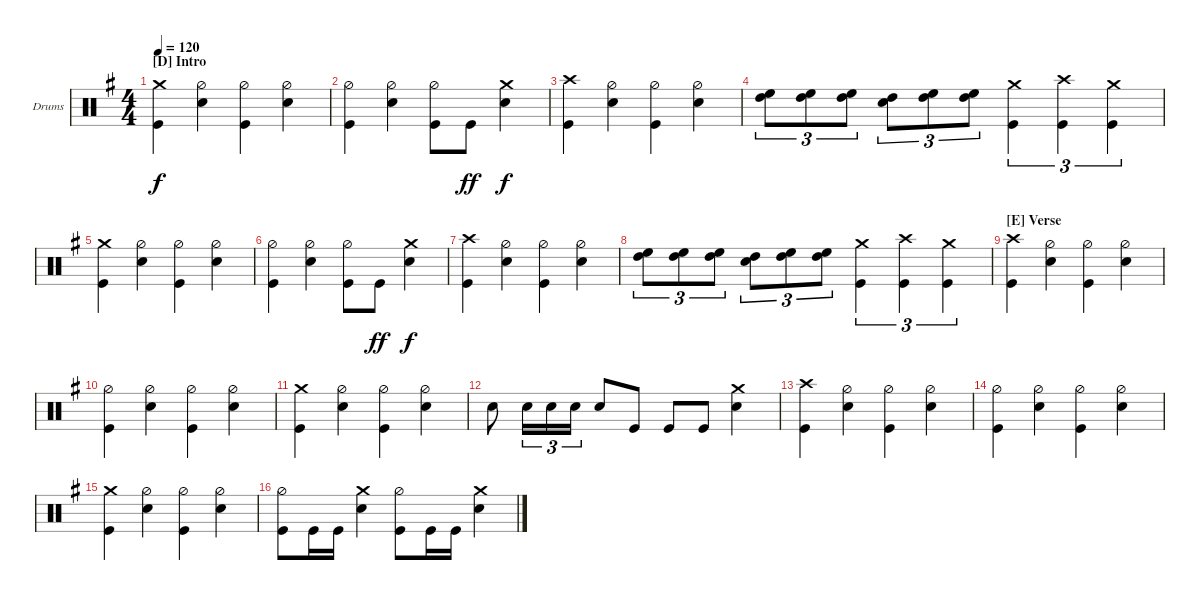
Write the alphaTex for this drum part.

\defaultSystemsLayout 4
\bracketExtendMode groupsimilarinstruments
\firstSystemTrackNameOrientation horizontal
\otherSystemsTrackNameOrientation horizontal
\track ("Drumkit" "Drums") {multiBarRest instrument percussion}
\staff {score}
\articulation defaults
\ts (4 4)
\section ("D" "Intro")
\tempo 120
\clef neutral
\ks g
("Crash medium (hit)" "Kick (hit)").4{dy f} ("Hi-Hat (half)" "Snare (hit) 2").4 ("Hi-Hat (half)" "Kick (hit)").4 ("Hi-Hat (half)" "Snare (hit) 2").4 |
("Hi-Hat (half)" "Kick (hit)").4 ("Hi-Hat (half)" "Snare (hit) 2").4 ("Hi-Hat (half)" "Kick (hit)").8 "Kick (hit)".8{dy ff} ("Crash medium (hit)" "Snare (hit) 2").4{dy f} |
("Crash high (hit)" "Kick (hit)").4 ("Hi-Hat (half)" "Snare (hit) 2").4 ("Hi-Hat (half)" "Kick (hit)").4 ("Hi-Hat (half)" "Snare (hit) 2").4 |
("High Floor Tom (hit)" "High Tom (hit)").8{tu (3 2)} ("High Floor Tom (hit)" "High Tom (hit)").8{tu (3 2)} ("High Floor Tom (hit)" "High Tom (hit)").8{tu (3 2)} ("Snare (hit) 2" "High Tom (hit)").8{tu (3 2)} ("High Floor Tom (hit)" "High Tom (hit)").8{tu (3 2)} ("High Floor Tom (hit)" "High Tom (hit)").8{tu (3 2)} ("Crash medium (hit)" "Kick (hit)").4{tu (3 2)} ("Crash high (hit)" "Kick (hit)").4{tu (3 2)} ("Crash medium (hit)" "Kick (hit)").4{tu (3 2)} |
("Crash medium (hit)" "Kick (hit)").4 ("Hi-Hat (half)" "Snare (hit) 2").4 ("Hi-Hat (half)" "Kick (hit)").4 ("Hi-Hat (half)" "Snare (hit) 2").4 |
("Hi-Hat (half)" "Kick (hit)").4 ("Snare (hit) 2" "Hi-Hat (half)").4 ("Hi-Hat (half)" "Kick (hit)").8 "Kick (hit)".8{dy ff} ("Crash medium (hit)" "Snare (hit) 2").4{dy f} |
("Crash high (hit)" "Kick (hit)").4 ("Hi-Hat (half)" "Snare (hit) 2").4 ("Hi-Hat (half)" "Kick (hit)").4 ("Hi-Hat (half)" "Snare (hit) 2").4 |
("High Floor Tom (hit)" "High Tom (hit)").8{tu (3 2)} ("High Floor Tom (hit)" "High Tom (hit)").8{tu (3 2)} ("High Floor Tom (hit)" "High Tom (hit)").8{tu (3 2)} ("Snare (hit) 2" "High Tom (hit)").8{tu (3 2)} ("High Floor Tom (hit)" "High Tom (hit)").8{tu (3 2)} ("High Floor Tom (hit)" "High Tom (hit)").8{tu (3 2)} ("Crash medium (hit)" "Kick (hit)").4{tu (3 2)} ("Crash high (hit)" "Kick (hit)").4{tu (3 2)} ("Crash medium (hit)" "Kick (hit)").4{tu (3 2)} |
\section ("E" "Verse")
("Crash high (hit)" "Kick (hit)").4 ("Hi-Hat (half)" "Snare (hit) 2").4 ("Hi-Hat (half)" "Kick (hit)").4 ("Hi-Hat (half)" "Snare (hit) 2").4 |
("Hi-Hat (half)" "Kick (hit)").4 ("Hi-Hat (half)" "Snare (hit) 2").4 ("Hi-Hat (half)" "Kick (hit)").4 ("Hi-Hat (half)" "Snare (hit) 2").4 |
("Crash medium (hit)" "Kick (hit)").4 ("Hi-Hat (half)" "Snare (hit) 2").4 ("Hi-Hat (half)" "Kick (hit)").4 ("Hi-Hat (half)" "Snare (hit) 2").4 |
"Snare (hit) 2".8 "Snare (hit) 2".16{tu (3 2)} "Snare (hit) 2".16{tu (3 2)} "Snare (hit) 2".16{tu (3 2)} "Snare (hit) 2".8 "Kick (hit)".8 "Kick (hit)".8 "Kick (hit)".8 ("Crash medium (hit)" "Snare (hit) 2").4 |
("Crash high (hit)" "Kick (hit)").4 ("Hi-Hat (half)" "Snare (hit) 2").4 ("Hi-Hat (half)" "Kick (hit)").4 ("Hi-Hat (half)" "Snare (hit) 2").4 |
("Hi-Hat (half)" "Kick (hit)").4 ("Hi-Hat (half)" "Snare (hit) 2").4 ("Hi-Hat (half)" "Kick (hit)").4 ("Hi-Hat (half)" "Snare (hit) 2").4 |
("Crash medium (hit)" "Kick (hit)").4 ("Hi-Hat (half)" "Snare (hit) 2").4 ("Hi-Hat (half)" "Kick (hit)").4 ("Hi-Hat (half)" "Snare (hit) 2").4 |
("Hi-Hat (half)" "Kick (hit)").8 "Kick (hit)".16 "Kick (hit)".16 ("Crash medium (hit)" "Snare (hit) 2").4 ("Hi-Hat (half)" "Kick (hit)").8 "Kick (hit)".16 "Kick (hit)".16 ("Crash medium (hit)" "Snare (hit) 2").4
